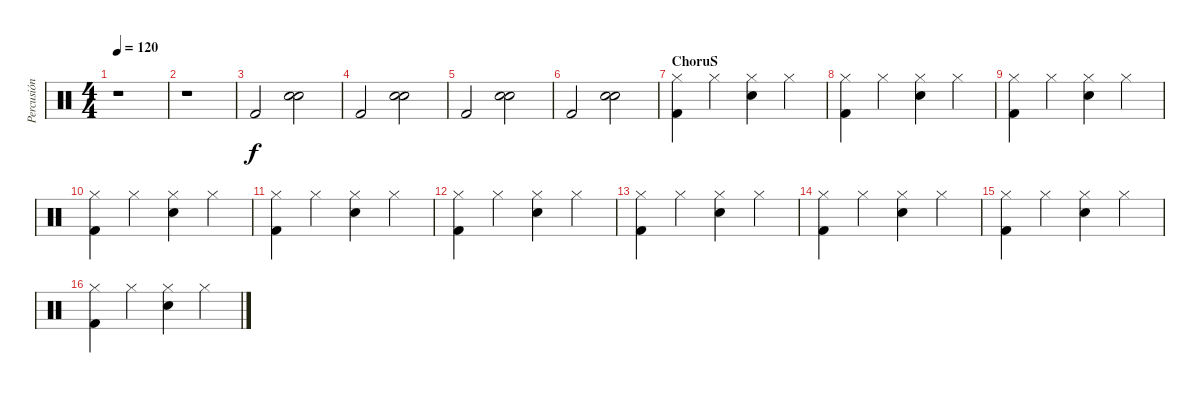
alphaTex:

\track ("Percusión" "Percusión") {instrument percussion}
\staff {score}
\articulation defaults
\ts (4 4)
\tempo 120
\clef neutral
\ks c
r.1{dy f} |
r.1 |
"Kick (hit) 2".2 ("Electric Snare (hit)" "Electric Snare (hit)").2 |
"Kick (hit) 2".2 ("Electric Snare (hit)" "Electric Snare (hit)").2 |
"Kick (hit) 2".2 ("Electric Snare (hit)" "Electric Snare (hit)").2 |
"Kick (hit) 2".2 ("Electric Snare (hit)" "Electric Snare (hit)").2 |
\section ("" "ChoruS")
("Hi-Hat (closed)" "Kick (hit) 2").4 "Hi-Hat (closed)".4 ("Hi-Hat (closed)" "Electric Snare (hit)").4 "Hi-Hat (closed)".4 |
("Hi-Hat (closed)" "Kick (hit) 2").4 "Hi-Hat (closed)".4 ("Hi-Hat (closed)" "Electric Snare (hit)").4 "Hi-Hat (closed)".4 |
("Hi-Hat (closed)" "Kick (hit) 2").4 "Hi-Hat (closed)".4 ("Hi-Hat (closed)" "Electric Snare (hit)").4 "Hi-Hat (closed)".4 |
("Hi-Hat (closed)" "Kick (hit) 2").4 "Hi-Hat (closed)".4 ("Hi-Hat (closed)" "Electric Snare (hit)").4 "Hi-Hat (closed)".4 |
("Hi-Hat (closed)" "Kick (hit) 2").4 "Hi-Hat (closed)".4 ("Hi-Hat (closed)" "Electric Snare (hit)").4 "Hi-Hat (closed)".4 |
("Hi-Hat (closed)" "Kick (hit) 2").4 "Hi-Hat (closed)".4 ("Hi-Hat (closed)" "Electric Snare (hit)").4 "Hi-Hat (closed)".4 |
("Hi-Hat (closed)" "Kick (hit) 2").4 "Hi-Hat (closed)".4 ("Hi-Hat (closed)" "Electric Snare (hit)").4 "Hi-Hat (closed)".4 |
("Hi-Hat (closed)" "Kick (hit) 2").4 "Hi-Hat (closed)".4 ("Hi-Hat (closed)" "Electric Snare (hit)").4 "Hi-Hat (closed)".4 |
("Hi-Hat (closed)" "Kick (hit) 2").4 "Hi-Hat (closed)".4 ("Hi-Hat (closed)" "Electric Snare (hit)").4 "Hi-Hat (closed)".4 |
("Hi-Hat (closed)" "Kick (hit) 2").4 "Hi-Hat (closed)".4 ("Hi-Hat (closed)" "Electric Snare (hit)").4 "Hi-Hat (closed)".4
